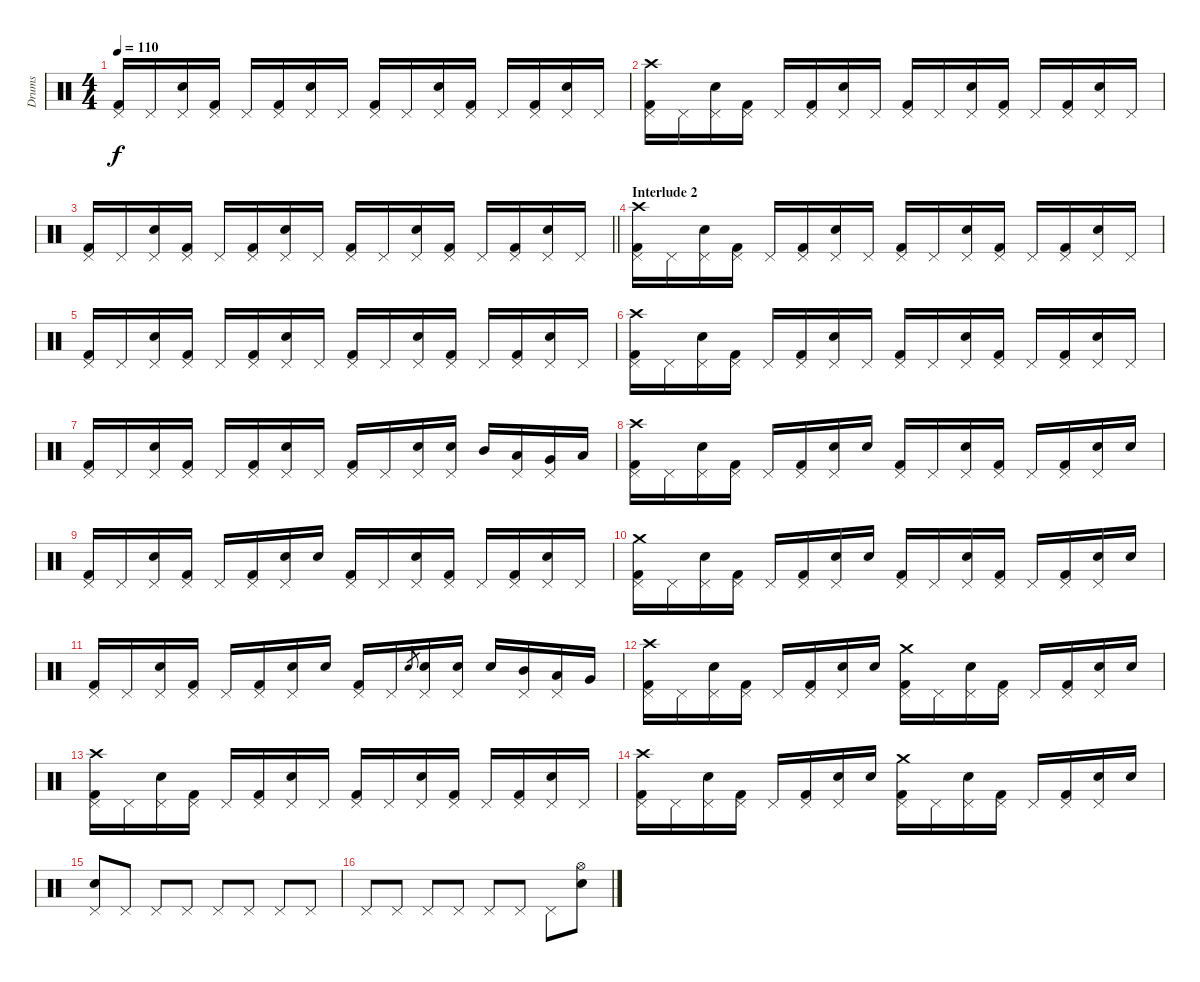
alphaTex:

\track ("Drums" "Drums") {instrument percussion}
\staff {score}
\articulation defaults
\ts (4 4)
\tempo 110
\clef neutral
\ks c
("Kick (hit) 2" "Pedal Hi-Hat (hit)").16{dy f} "Pedal Hi-Hat (hit)".16 ("Snare (hit) 2" "Pedal Hi-Hat (hit)").16 ("Kick (hit) 2" "Pedal Hi-Hat (hit)").16 "Pedal Hi-Hat (hit)".16 ("Kick (hit) 2" "Pedal Hi-Hat (hit)").16 ("Snare (hit) 2" "Pedal Hi-Hat (hit)").16 "Pedal Hi-Hat (hit)".16 ("Kick (hit) 2" "Pedal Hi-Hat (hit)").16 "Pedal Hi-Hat (hit)".16 ("Snare (hit) 2" "Pedal Hi-Hat (hit)").16 ("Kick (hit) 2" "Pedal Hi-Hat (hit)").16 "Pedal Hi-Hat (hit)".16 ("Kick (hit) 2" "Pedal Hi-Hat (hit)").16 ("Snare (hit) 2" "Pedal Hi-Hat (hit)").16 "Pedal Hi-Hat (hit)".16 |
("Kick (hit) 2" "Pedal Hi-Hat (hit)" "Crash high (hit)").16 "Pedal Hi-Hat (hit)".16 ("Snare (hit) 2" "Pedal Hi-Hat (hit)").16 ("Kick (hit) 2" "Pedal Hi-Hat (hit)").16 "Pedal Hi-Hat (hit)".16 ("Kick (hit) 2" "Pedal Hi-Hat (hit)").16 ("Snare (hit) 2" "Pedal Hi-Hat (hit)").16 "Pedal Hi-Hat (hit)".16 ("Kick (hit) 2" "Pedal Hi-Hat (hit)").16 "Pedal Hi-Hat (hit)".16 ("Snare (hit) 2" "Pedal Hi-Hat (hit)").16 ("Kick (hit) 2" "Pedal Hi-Hat (hit)").16 "Pedal Hi-Hat (hit)".16 ("Kick (hit) 2" "Pedal Hi-Hat (hit)").16 ("Snare (hit) 2" "Pedal Hi-Hat (hit)").16 "Pedal Hi-Hat (hit)".16 |
\barLineRight lightlight
("Kick (hit) 2" "Pedal Hi-Hat (hit)").16 "Pedal Hi-Hat (hit)".16 ("Snare (hit) 2" "Pedal Hi-Hat (hit)").16 ("Kick (hit) 2" "Pedal Hi-Hat (hit)").16 "Pedal Hi-Hat (hit)".16 ("Kick (hit) 2" "Pedal Hi-Hat (hit)").16 ("Snare (hit) 2" "Pedal Hi-Hat (hit)").16 "Pedal Hi-Hat (hit)".16 ("Kick (hit) 2" "Pedal Hi-Hat (hit)").16 "Pedal Hi-Hat (hit)".16 ("Snare (hit) 2" "Pedal Hi-Hat (hit)").16 ("Kick (hit) 2" "Pedal Hi-Hat (hit)").16 "Pedal Hi-Hat (hit)".16 ("Kick (hit) 2" "Pedal Hi-Hat (hit)").16 ("Snare (hit) 2" "Pedal Hi-Hat (hit)").16 "Pedal Hi-Hat (hit)".16 |
\section ("" "Interlude 2")
("Kick (hit) 2" "Pedal Hi-Hat (hit)" "Crash high (hit)").16 "Pedal Hi-Hat (hit)".16 ("Snare (hit) 2" "Pedal Hi-Hat (hit)").16 ("Kick (hit) 2" "Pedal Hi-Hat (hit)").16 "Pedal Hi-Hat (hit)".16 ("Kick (hit) 2" "Pedal Hi-Hat (hit)").16 ("Snare (hit) 2" "Pedal Hi-Hat (hit)").16 "Pedal Hi-Hat (hit)".16 ("Kick (hit) 2" "Pedal Hi-Hat (hit)").16 "Pedal Hi-Hat (hit)".16 ("Snare (hit) 2" "Pedal Hi-Hat (hit)").16 ("Kick (hit) 2" "Pedal Hi-Hat (hit)").16 "Pedal Hi-Hat (hit)".16 ("Kick (hit) 2" "Pedal Hi-Hat (hit)").16 ("Snare (hit) 2" "Pedal Hi-Hat (hit)").16 "Pedal Hi-Hat (hit)".16 |
("Kick (hit) 2" "Pedal Hi-Hat (hit)").16 "Pedal Hi-Hat (hit)".16 ("Snare (hit) 2" "Pedal Hi-Hat (hit)").16 ("Kick (hit) 2" "Pedal Hi-Hat (hit)").16 "Pedal Hi-Hat (hit)".16 ("Kick (hit) 2" "Pedal Hi-Hat (hit)").16 ("Snare (hit) 2" "Pedal Hi-Hat (hit)").16 "Pedal Hi-Hat (hit)".16 ("Kick (hit) 2" "Pedal Hi-Hat (hit)").16 "Pedal Hi-Hat (hit)".16 ("Snare (hit) 2" "Pedal Hi-Hat (hit)").16 ("Kick (hit) 2" "Pedal Hi-Hat (hit)").16 "Pedal Hi-Hat (hit)".16 ("Kick (hit) 2" "Pedal Hi-Hat (hit)").16 ("Snare (hit) 2" "Pedal Hi-Hat (hit)").16 "Pedal Hi-Hat (hit)".16 |
("Kick (hit) 2" "Pedal Hi-Hat (hit)" "Crash high (hit)").16 "Pedal Hi-Hat (hit)".16 ("Snare (hit) 2" "Pedal Hi-Hat (hit)").16 ("Kick (hit) 2" "Pedal Hi-Hat (hit)").16 "Pedal Hi-Hat (hit)".16 ("Kick (hit) 2" "Pedal Hi-Hat (hit)").16 ("Snare (hit) 2" "Pedal Hi-Hat (hit)").16 "Pedal Hi-Hat (hit)".16 ("Kick (hit) 2" "Pedal Hi-Hat (hit)").16 "Pedal Hi-Hat (hit)".16 ("Snare (hit) 2" "Pedal Hi-Hat (hit)").16 ("Kick (hit) 2" "Pedal Hi-Hat (hit)").16 "Pedal Hi-Hat (hit)".16 ("Kick (hit) 2" "Pedal Hi-Hat (hit)").16 ("Snare (hit) 2" "Pedal Hi-Hat (hit)").16 "Pedal Hi-Hat (hit)".16 |
("Kick (hit) 2" "Pedal Hi-Hat (hit)").16 "Pedal Hi-Hat (hit)".16 ("Snare (hit) 2" "Pedal Hi-Hat (hit)").16 ("Kick (hit) 2" "Pedal Hi-Hat (hit)").16 "Pedal Hi-Hat (hit)".16 ("Kick (hit) 2" "Pedal Hi-Hat (hit)").16 ("Snare (hit) 2" "Pedal Hi-Hat (hit)").16 "Pedal Hi-Hat (hit)".16 ("Kick (hit) 2" "Pedal Hi-Hat (hit)").16 "Pedal Hi-Hat (hit)".16 ("Snare (hit) 2" "Pedal Hi-Hat (hit)").16 ("Snare (hit) 2" "Pedal Hi-Hat (hit)").16 "Mid Tom (hit)".16 ("Low Tom (hit)" "Pedal Hi-Hat (hit)").16 ("Very Low Tom (hit)" "Pedal Hi-Hat (hit)").16 "Low Floor Tom (hit)".16 |
("Kick (hit) 2" "Pedal Hi-Hat (hit)" "Crash high (hit)").16 "Pedal Hi-Hat (hit)".16 ("Snare (hit) 2" "Pedal Hi-Hat (hit)").16 ("Kick (hit) 2" "Pedal Hi-Hat (hit)").16 "Pedal Hi-Hat (hit)".16 ("Kick (hit) 2" "Pedal Hi-Hat (hit)").16 ("Snare (hit) 2" "Pedal Hi-Hat (hit)").16 "Snare (hit) 2".16 ("Kick (hit) 2" "Pedal Hi-Hat (hit)").16 "Pedal Hi-Hat (hit)".16 ("Snare (hit) 2" "Pedal Hi-Hat (hit)").16 ("Kick (hit) 2" "Pedal Hi-Hat (hit)").16 "Pedal Hi-Hat (hit)".16 ("Kick (hit) 2" "Pedal Hi-Hat (hit)").16 ("Snare (hit) 2" "Pedal Hi-Hat (hit)").16 "Snare (hit) 2".16 |
("Kick (hit) 2" "Pedal Hi-Hat (hit)").16 "Pedal Hi-Hat (hit)".16 ("Snare (hit) 2" "Pedal Hi-Hat (hit)").16 ("Kick (hit) 2" "Pedal Hi-Hat (hit)").16 "Pedal Hi-Hat (hit)".16 ("Kick (hit) 2" "Pedal Hi-Hat (hit)").16 ("Snare (hit) 2" "Pedal Hi-Hat (hit)").16 "Snare (hit) 2".16 ("Kick (hit) 2" "Pedal Hi-Hat (hit)").16 "Pedal Hi-Hat (hit)".16 ("Snare (hit) 2" "Pedal Hi-Hat (hit)").16 ("Kick (hit) 2" "Pedal Hi-Hat (hit)").16 "Pedal Hi-Hat (hit)".16 ("Kick (hit) 2" "Pedal Hi-Hat (hit)").16 ("Snare (hit) 2" "Pedal Hi-Hat (hit)").16 "Pedal Hi-Hat (hit)".16 |
("Kick (hit) 2" "Pedal Hi-Hat (hit)" "Crash medium (hit)").16 "Pedal Hi-Hat (hit)".16 ("Snare (hit) 2" "Pedal Hi-Hat (hit)").16 ("Kick (hit) 2" "Pedal Hi-Hat (hit)").16 "Pedal Hi-Hat (hit)".16 ("Kick (hit) 2" "Pedal Hi-Hat (hit)").16 ("Snare (hit) 2" "Pedal Hi-Hat (hit)").16 "Snare (hit) 2".16 ("Kick (hit) 2" "Pedal Hi-Hat (hit)").16 "Pedal Hi-Hat (hit)".16 ("Snare (hit) 2" "Pedal Hi-Hat (hit)").16 ("Kick (hit) 2" "Pedal Hi-Hat (hit)").16 "Pedal Hi-Hat (hit)".16 ("Kick (hit) 2" "Pedal Hi-Hat (hit)").16 ("Snare (hit) 2" "Pedal Hi-Hat (hit)").16 "Snare (hit) 2".16 |
("Kick (hit) 2" "Pedal Hi-Hat (hit)").16 "Pedal Hi-Hat (hit)".16 ("Snare (hit) 2" "Pedal Hi-Hat (hit)").16 ("Kick (hit) 2" "Pedal Hi-Hat (hit)").16 "Pedal Hi-Hat (hit)".16 ("Kick (hit) 2" "Pedal Hi-Hat (hit)").16 ("Snare (hit) 2" "Pedal Hi-Hat (hit)").16 "Snare (hit) 2".16 ("Kick (hit) 2" "Pedal Hi-Hat (hit)").16 "Pedal Hi-Hat (hit)".16 "Snare (hit) 2".8{gr} ("Snare (hit) 2" "Pedal Hi-Hat (hit)").16 ("Snare (hit) 2" "Pedal Hi-Hat (hit)").16 "Snare (hit) 2".16 ("Mid Tom (hit)" "Pedal Hi-Hat (hit)").16 ("Low Tom (hit)" "Pedal Hi-Hat (hit)").16 "Very Low Tom (hit)".16 |
("Kick (hit) 2" "Pedal Hi-Hat (hit)" "Crash high (hit)").16 "Pedal Hi-Hat (hit)".16 ("Snare (hit) 2" "Pedal Hi-Hat (hit)").16 ("Kick (hit) 2" "Pedal Hi-Hat (hit)").16 "Pedal Hi-Hat (hit)".16 ("Kick (hit) 2" "Pedal Hi-Hat (hit)").16 ("Snare (hit) 2" "Pedal Hi-Hat (hit)").16 "Snare (hit) 2".16 ("Kick (hit) 2" "Pedal Hi-Hat (hit)" "Crash medium (hit)").16 "Pedal Hi-Hat (hit)".16 ("Snare (hit) 2" "Pedal Hi-Hat (hit)").16 ("Kick (hit) 2" "Pedal Hi-Hat (hit)").16 "Pedal Hi-Hat (hit)".16 ("Kick (hit) 2" "Pedal Hi-Hat (hit)").16 ("Snare (hit) 2" "Pedal Hi-Hat (hit)").16 "Snare (hit) 2".16 |
("Kick (hit) 2" "Pedal Hi-Hat (hit)" "Crash high (hit)").16 "Pedal Hi-Hat (hit)".16 ("Snare (hit) 2" "Pedal Hi-Hat (hit)").16 ("Kick (hit) 2" "Pedal Hi-Hat (hit)").16 "Pedal Hi-Hat (hit)".16 ("Kick (hit) 2" "Pedal Hi-Hat (hit)").16 ("Snare (hit) 2" "Pedal Hi-Hat (hit)").16 "Pedal Hi-Hat (hit)".16 ("Kick (hit) 2" "Pedal Hi-Hat (hit)").16 "Pedal Hi-Hat (hit)".16 ("Snare (hit) 2" "Pedal Hi-Hat (hit)").16 ("Kick (hit) 2" "Pedal Hi-Hat (hit)").16 "Pedal Hi-Hat (hit)".16 ("Kick (hit) 2" "Pedal Hi-Hat (hit)").16 ("Snare (hit) 2" "Pedal Hi-Hat (hit)").16 "Pedal Hi-Hat (hit)".16 |
("Kick (hit) 2" "Pedal Hi-Hat (hit)" "Crash high (hit)").16 "Pedal Hi-Hat (hit)".16 ("Snare (hit) 2" "Pedal Hi-Hat (hit)").16 ("Kick (hit) 2" "Pedal Hi-Hat (hit)").16 "Pedal Hi-Hat (hit)".16 ("Kick (hit) 2" "Pedal Hi-Hat (hit)").16 ("Snare (hit) 2" "Pedal Hi-Hat (hit)").16 "Snare (hit) 2".16 ("Kick (hit) 2" "Pedal Hi-Hat (hit)" "Crash medium (hit)").16 "Pedal Hi-Hat (hit)".16 ("Snare (hit) 2" "Pedal Hi-Hat (hit)").16 ("Kick (hit) 2" "Pedal Hi-Hat (hit)").16 "Pedal Hi-Hat (hit)".16 ("Kick (hit) 2" "Pedal Hi-Hat (hit)").16 ("Snare (hit) 2" "Pedal Hi-Hat (hit)").16 "Snare (hit) 2".16 |
("Snare (hit) 2" "Pedal Hi-Hat (hit)").8 "Pedal Hi-Hat (hit)".8 "Pedal Hi-Hat (hit)".8 "Pedal Hi-Hat (hit)".8 "Pedal Hi-Hat (hit)".8 "Pedal Hi-Hat (hit)".8 "Pedal Hi-Hat (hit)".8 "Pedal Hi-Hat (hit)".8 |
"Pedal Hi-Hat (hit)".8 "Pedal Hi-Hat (hit)".8 "Pedal Hi-Hat (hit)".8 "Pedal Hi-Hat (hit)".8 "Pedal Hi-Hat (hit)".8 "Pedal Hi-Hat (hit)".8 "Pedal Hi-Hat (hit)".8 ("Hi-Hat (open)" "Snare (hit) 2").8
